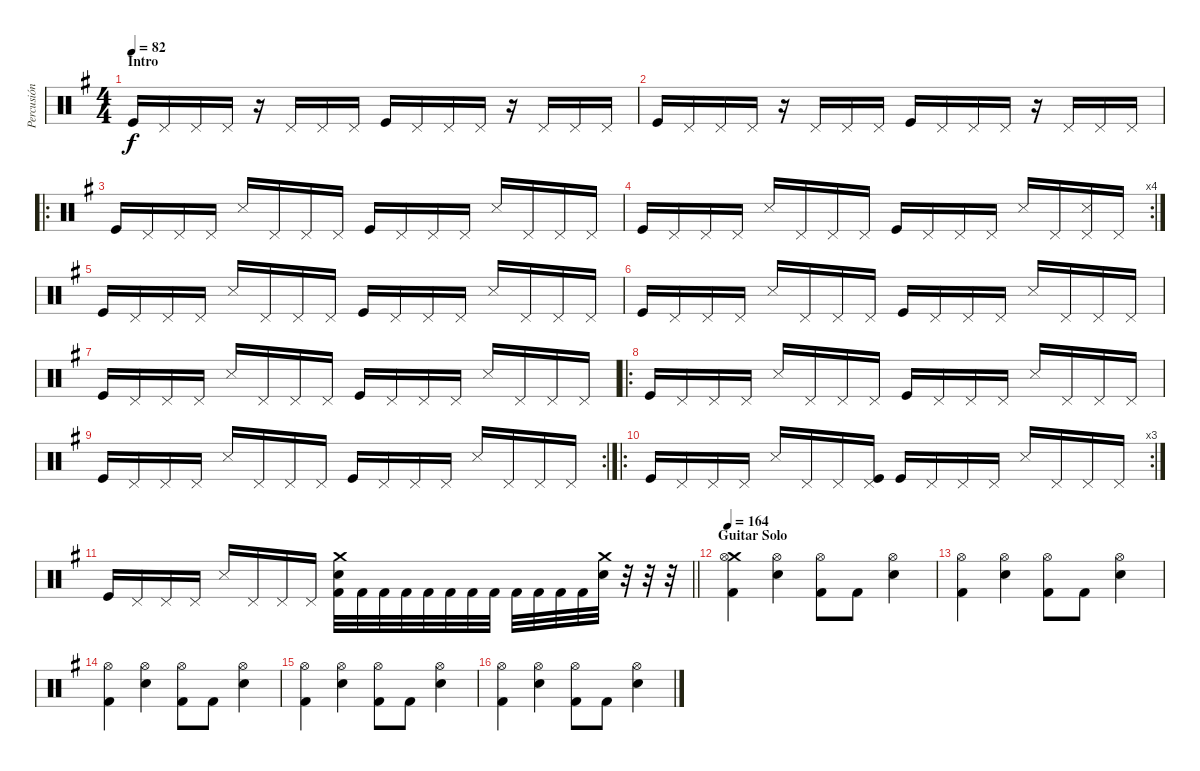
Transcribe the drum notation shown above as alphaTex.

\track ("Percusión" "Percusión") {instrument percussion}
\staff {score}
\articulation defaults
\ts (4 4)
\section ("" "Intro")
\tempo 82
\clef neutral
\ks g "Kick (hit)".16{dy f} "Pedal Hi-Hat (hit)".16 "Pedal Hi-Hat (hit)".16 "Pedal Hi-Hat (hit)".16
r.16 "Pedal Hi-Hat (hit)".16 "Pedal Hi-Hat (hit)".16 "Pedal Hi-Hat (hit)".16 "Kick (hit)".16 "Pedal Hi-Hat (hit)".16 "Pedal Hi-Hat (hit)".16 "Pedal Hi-Hat (hit)".16 r.16 "Pedal Hi-Hat (hit)".16 "Pedal Hi-Hat (hit)".16 "Pedal Hi-Hat (hit)".16 |
"Kick (hit)".16 "Pedal Hi-Hat (hit)".16 "Pedal Hi-Hat (hit)".16 "Pedal Hi-Hat (hit)".16 r.16 "Pedal Hi-Hat (hit)".16 "Pedal Hi-Hat (hit)".16 "Pedal Hi-Hat (hit)".16 "Kick (hit)".16 "Pedal Hi-Hat (hit)".16 "Pedal Hi-Hat (hit)".16 "Pedal Hi-Hat (hit)".16 r.16 "Pedal Hi-Hat (hit)".16 "Pedal Hi-Hat (hit)".16 "Pedal Hi-Hat (hit)".16 |
\ro "Kick (hit)".16 "Pedal Hi-Hat (hit)".16 "Pedal Hi-Hat (hit)".16 "Pedal Hi-Hat (hit)".16 "Snare (side stick) 3".16 "Pedal Hi-Hat (hit)".16 "Pedal Hi-Hat (hit)".16 "Pedal Hi-Hat (hit)".16 "Kick (hit)".16 "Pedal Hi-Hat (hit)".16 "Pedal Hi-Hat (hit)".16 "Pedal Hi-Hat (hit)".16 "Snare (side stick) 3".16 "Pedal Hi-Hat (hit)".16 "Pedal Hi-Hat (hit)".16 "Pedal Hi-Hat (hit)".16
|
\rc 4 "Kick (hit)".16 "Pedal Hi-Hat (hit)".16 "Pedal Hi-Hat (hit)".16 "Pedal Hi-Hat (hit)".16 "Snare (side stick) 3".16 "Pedal Hi-Hat (hit)".16 "Pedal Hi-Hat (hit)".16 "Pedal Hi-Hat (hit)".16 "Kick (hit)".16 "Pedal Hi-Hat (hit)".16 "Pedal Hi-Hat (hit)".16 "Pedal Hi-Hat (hit)".16 "Snare (side stick) 3".16 "Pedal Hi-Hat (hit)".16
("Pedal Hi-Hat (hit)" "Snare (side stick) 3").16 "Pedal Hi-Hat (hit)".16 |
"Kick (hit)".16 "Pedal Hi-Hat (hit)".16 "Pedal Hi-Hat (hit)".16 "Pedal Hi-Hat (hit)".16 "Snare (side stick) 3".16 "Pedal Hi-Hat (hit)".16 "Pedal Hi-Hat (hit)".16 "Pedal Hi-Hat (hit)".16 "Kick (hit)".16 "Pedal Hi-Hat (hit)".16 "Pedal Hi-Hat (hit)".16 "Pedal Hi-Hat (hit)".16 "Snare (side stick) 3".16 "Pedal Hi-Hat (hit)".16 "Pedal Hi-Hat (hit)".16 "Pedal Hi-Hat (hit)".16 |
"Kick (hit)".16 "Pedal Hi-Hat (hit)".16 "Pedal Hi-Hat (hit)".16 "Pedal Hi-Hat (hit)".16 "Snare (side stick) 3".16 "Pedal Hi-Hat (hit)".16 "Pedal Hi-Hat (hit)".16 "Pedal Hi-Hat (hit)".16 "Kick (hit)".16 "Pedal Hi-Hat (hit)".16 "Pedal Hi-Hat (hit)".16 "Pedal Hi-Hat (hit)".16 "Snare (side stick) 3".16 "Pedal Hi-Hat (hit)".16 "Pedal Hi-Hat (hit)".16 "Pedal Hi-Hat (hit)".16 |
"Kick (hit)".16 "Pedal Hi-Hat (hit)".16 "Pedal Hi-Hat (hit)".16 "Pedal Hi-Hat (hit)".16 "Snare (side stick) 3".16 "Pedal Hi-Hat (hit)".16 "Pedal Hi-Hat (hit)".16 "Pedal Hi-Hat (hit)".16 "Kick (hit)".16 "Pedal Hi-Hat (hit)".16 "Pedal Hi-Hat (hit)".16 "Pedal Hi-Hat (hit)".16 "Snare (side stick) 3".16 "Pedal Hi-Hat (hit)".16 "Pedal Hi-Hat (hit)".16 "Pedal Hi-Hat (hit)".16 |
\ro "Kick (hit)".16 "Pedal Hi-Hat (hit)".16 "Pedal Hi-Hat (hit)".16 "Pedal Hi-Hat (hit)".16 "Snare (side stick) 3".16 "Pedal Hi-Hat (hit)".16 "Pedal Hi-Hat (hit)".16 "Pedal Hi-Hat (hit)".16 "Kick (hit)".16 "Pedal Hi-Hat (hit)".16 "Pedal Hi-Hat (hit)".16 "Pedal Hi-Hat (hit)".16 "Snare (side stick) 3".16 "Pedal Hi-Hat (hit)".16 "Pedal Hi-Hat (hit)".16 "Pedal Hi-Hat (hit)".16
|
\rc 2 "Kick (hit)".16 "Pedal Hi-Hat (hit)".16 "Pedal Hi-Hat (hit)".16 "Pedal Hi-Hat (hit)".16 "Snare (side stick) 3".16 "Pedal Hi-Hat (hit)".16 "Pedal Hi-Hat (hit)".16 "Pedal Hi-Hat (hit)".16 "Kick (hit)".16 "Pedal Hi-Hat (hit)".16 "Pedal Hi-Hat (hit)".16 "Pedal Hi-Hat (hit)".16 "Snare (side stick) 3".16 "Pedal Hi-Hat (hit)".16 "Pedal Hi-Hat (hit)".16 "Pedal Hi-Hat (hit)".16
|
\ro
\rc 3 "Kick (hit)".16 "Pedal Hi-Hat (hit)".16 "Pedal Hi-Hat (hit)".16 "Pedal Hi-Hat (hit)".16 "Snare (side stick) 3".16 "Pedal Hi-Hat (hit)".16 "Pedal Hi-Hat (hit)".16
("Pedal Hi-Hat (hit)" "Kick (hit)").16 "Kick (hit)".16 "Pedal Hi-Hat (hit)".16 "Pedal Hi-Hat (hit)".16 "Pedal Hi-Hat (hit)".16 "Snare (side stick) 3".16 "Pedal Hi-Hat (hit)".16 "Pedal Hi-Hat (hit)".16 "Pedal Hi-Hat (hit)".16 |
\barLineRight lightlight "Kick (hit)".16 "Pedal Hi-Hat (hit)".16 "Pedal Hi-Hat (hit)".16 "Pedal Hi-Hat (hit)".16 "Snare (side stick) 3".16 "Pedal Hi-Hat (hit)".16 "Pedal Hi-Hat (hit)".16 "Pedal Hi-Hat (hit)".16
("Crash medium (hit)" "Kick (hit) 2" "Snare (hit) 2").32 "Kick (hit) 2".32 "Kick (hit) 2".32 "Kick (hit) 2".32 "Kick (hit) 2".32 "Kick (hit) 2".32 "Kick (hit) 2".32 "Kick (hit) 2".32 "Kick (hit) 2".32 "Kick (hit) 2".32 "Kick (hit) 2".32 "Kick (hit) 2".32 ("Crash medium (hit)" "Snare (hit) 2").32 r.32 r.32 r.32 |
\section ("" "Guitar Solo")
\tempo 164
("Crash medium (hit)" "Hi-Hat (open)" "Kick (hit) 2").4 ("Hi-Hat (open)" "Snare (hit) 2").4 ("Hi-Hat (open)" "Kick (hit) 2").8 "Kick (hit) 2".8 ("Hi-Hat (open)" "Snare (hit) 2").4 |
("Hi-Hat (open)" "Kick (hit) 2").4 ("Hi-Hat (open)" "Snare (hit) 2").4 ("Hi-Hat (open)" "Kick (hit) 2").8 "Kick (hit) 2".8 ("Hi-Hat (open)" "Snare (hit) 2").4 |
("Hi-Hat (open)" "Kick (hit) 2").4 ("Hi-Hat (open)" "Snare (hit) 2").4 ("Hi-Hat (open)" "Kick (hit) 2").8 "Kick (hit) 2".8 ("Hi-Hat (open)" "Snare (hit) 2").4 |
("Hi-Hat (open)" "Kick (hit) 2").4 ("Hi-Hat (open)" "Snare (hit) 2").4 ("Hi-Hat (open)" "Kick (hit) 2").8 "Kick (hit) 2".8 ("Hi-Hat (open)" "Snare (hit) 2").4 |
("Hi-Hat (open)" "Kick (hit) 2").4 ("Hi-Hat (open)" "Snare (hit) 2").4 ("Hi-Hat (open)" "Kick (hit) 2").8 "Kick (hit) 2".8 ("Hi-Hat (open)" "Snare (hit) 2").4
